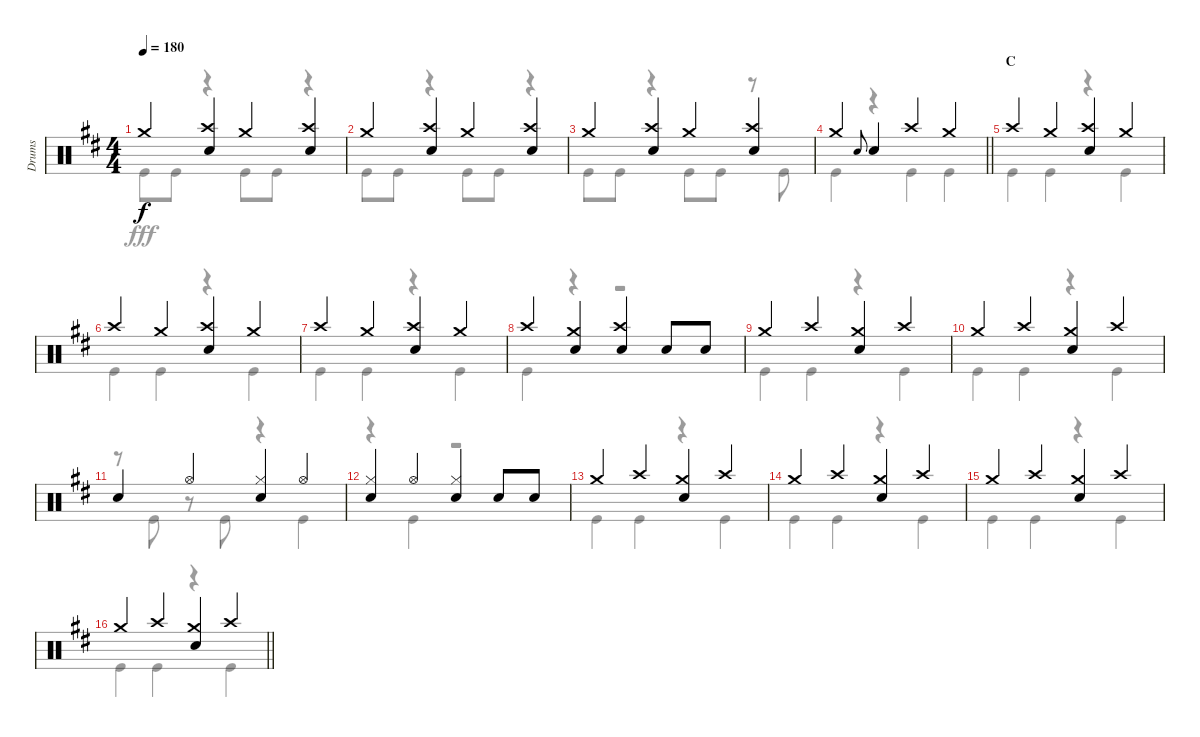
\track ("Drums" "Drums") {instrument percussion}
\staff {score}
\articulation defaults
\voice
\ts (4 4)
\tempo 180
\clef neutral
\ks d "Crash medium (hit)".4{dy f}
("Crash high (hit)" "Snare (hit) 2").4 "Crash medium (hit)".4 ("Crash high (hit)" "Snare (hit) 2").4 |
"Crash medium (hit)".4 ("Crash high (hit)" "Snare (hit) 2").4 "Crash medium (hit)".4 ("Crash high (hit)" "Snare (hit) 2").4 |
"Crash medium (hit)".4 ("Crash high (hit)" "Snare (hit) 2").4 "Crash medium (hit)".4 ("Crash high (hit)" "Snare (hit) 2").4 |
\barLineRight lightlight "Crash medium (hit)".4 "Snare (hit) 2".8{gr onbeat} "Snare (hit) 2".4 "Crash high (hit)".4 "Crash medium (hit)".4
|
\section ("" "C")
"Crash high (hit)".4 "Crash medium (hit)".4 ("Crash high (hit)" "Snare (hit) 2").4 "Crash medium (hit)".4 |
"Crash high (hit)".4 "Crash medium (hit)".4 ("Crash high (hit)" "Snare (hit) 2").4 "Crash medium (hit)".4 |
"Crash high (hit)".4 "Crash medium (hit)".4 ("Crash high (hit)" "Snare (hit) 2").4 "Crash medium (hit)".4 |
"Crash high (hit)".4 ("Crash medium (hit)" "Snare (hit) 2").4 ("Crash high (hit)" "Snare (hit) 2").4 "Snare (hit) 2".8 "Snare (hit) 2".8 |
"Crash medium (hit)".4 "Crash high (hit)".4 ("Crash medium (hit)" "Snare (hit) 2").4 "Crash high (hit)".4 |
"Crash medium (hit)".4 "Crash high (hit)".4 ("Crash medium (hit)" "Snare (hit) 2").4 "Crash high (hit)".4 |
"Snare (hit) 2".4 "Hi-Hat (open)".4 ("Hi-Hat (closed)" "Snare (hit) 2").4 "Hi-Hat (open)".4 |
("Hi-Hat (closed)" "Snare (hit) 2").4 "Hi-Hat (open)".4 ("Hi-Hat (closed)" "Snare (hit) 2").4 "Snare (hit) 2".8 "Snare (hit) 2".8 |
"Crash medium (hit)".4 "Crash high (hit)".4 ("Crash medium (hit)" "Snare (hit) 2").4 "Crash high (hit)".4 |
"Crash medium (hit)".4 "Crash high (hit)".4 ("Crash medium (hit)" "Snare (hit) 2").4 "Crash high (hit)".4 |
"Crash medium (hit)".4 "Crash high (hit)".4 ("Crash medium (hit)" "Snare (hit) 2").4 "Crash high (hit)".4 |
\barLineRight lightlight "Crash medium (hit)".4 "Crash high (hit)".4
("Crash medium (hit)" "Snare (hit) 2").4 "Crash high (hit)".4
\voice
\clef neutral
\ottava regular
\simile none
\ks d "Kick (hit)".8{dy fff} "Kick (hit)".8
r.4 "Kick (hit)".8 "Kick (hit)".8 r.4 |
"Kick (hit)".8 "Kick (hit)".8 r.4 "Kick (hit)".8 "Kick (hit)".8 r.4 |
"Kick (hit)".8 "Kick (hit)".8 r.4 "Kick (hit)".8 "Kick (hit)".8 r.8 "Kick (hit)".8 |
\barLineRight lightlight "Kick (hit)".4
r.4 "Kick (hit)".4 "Kick (hit)".4 |
"Kick (hit)".4 "Kick (hit)".4 r.4 "Kick (hit)".4 |
"Kick (hit)".4 "Kick (hit)".4 r.4 "Kick (hit)".4 |
"Kick (hit)".4 "Kick (hit)".4 r.4 "Kick (hit)".4 |
"Kick (hit)".4 r.4 r.2 |
"Kick (hit)".4 "Kick (hit)".4 r.4 "Kick (hit)".4 |
"Kick (hit)".4 "Kick (hit)".4 r.4 "Kick (hit)".4 |
r.8 "Kick (hit)".8 r.8 "Kick (hit)".8 r.4 "Kick (hit)".4 |
r.4 "Kick (hit)".4 r.2 |
"Kick (hit)".4 "Kick (hit)".4 r.4 "Kick (hit)".4 |
"Kick (hit)".4 "Kick (hit)".4 r.4 "Kick (hit)".4 |
"Kick (hit)".4 "Kick (hit)".4 r.4 "Kick (hit)".4 |
\barLineRight lightlight "Kick (hit)".4 "Kick (hit)".4
r.4 "Kick (hit)".4
